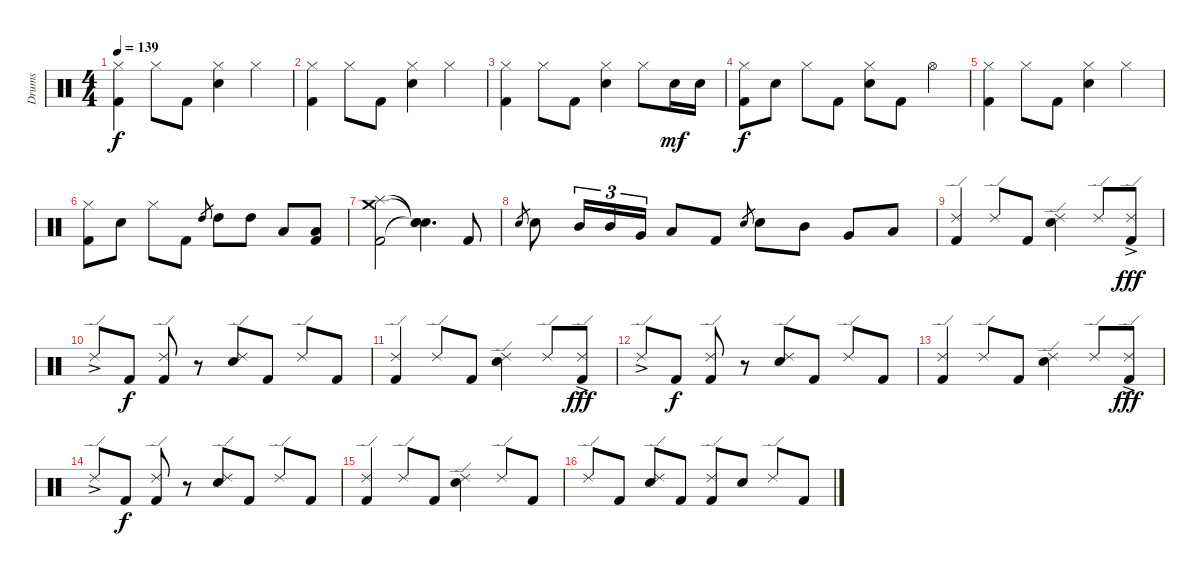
\track ("Drums" "Drums") {instrument percussion}
\staff {score}
\articulation defaults
\ts (4 4)
\tempo 139
\clef neutral
\ks c
("Hi-Hat (closed)" "Kick (hit) 2").4{dy f} "Hi-Hat (closed)".8 "Kick (hit) 2".8 ("Hi-Hat (closed)" "Electric Snare (hit)").4 "Hi-Hat (closed)".4 |
("Hi-Hat (closed)" "Kick (hit) 2").4 "Hi-Hat (closed)".8 "Kick (hit) 2".8 ("Hi-Hat (closed)" "Electric Snare (hit)").4 "Hi-Hat (closed)".4 |
("Hi-Hat (closed)" "Kick (hit) 2").4 "Hi-Hat (closed)".8 "Kick (hit) 2".8 ("Hi-Hat (closed)" "Electric Snare (hit)").4 "Hi-Hat (closed)".8 "Electric Snare (hit)".16{dy mf} "Electric Snare (hit)".16 |
("Hi-Hat (closed)" "Kick (hit) 2").8{dy f} "Electric Snare (hit)".8 "Hi-Hat (closed)".8 "Kick (hit) 2".8 ("Hi-Hat (closed)" "Electric Snare (hit)").8 "Kick (hit) 2".8 "Hi-Hat (open)".4 |
("Hi-Hat (closed)" "Kick (hit) 2").4 "Hi-Hat (closed)".8 "Kick (hit) 2".8 ("Hi-Hat (closed)" "Electric Snare (hit)").4 "Hi-Hat (closed)".4 |
("Hi-Hat (closed)" "Kick (hit) 2").8 "Electric Snare (hit)".8 "Hi-Hat (closed)".8 "Kick (hit) 2".8 "High Tom (hit)".8{gr} "High Tom (hit)".8 "High Tom (hit)".8 "Low Tom (hit)".8 ("Low Floor Tom (hit)" "Kick (hit) 2").8 |
("Crash medium (hit)" "Splash (hit)" "Kick (hit) 2").2 ("Snare (hit)"{t} "Snare (hit)"{t} "Snare (hit)"{t}).4{d} "Kick (hit) 2".8 |
"Electric Snare (hit)".8{gr} "Electric Snare (hit)".8 "Mid Tom (hit)".16{tu (3 2)} "Mid Tom (hit)".16{tu (3 2)} "Very Low Tom (hit)".16{tu (3 2)} "Low Floor Tom (hit)".8 "Kick (hit) 2".8 "Electric Snare (hit)".8{gr} "Electric Snare (hit)".8 "Mid Tom (hit)".8 "Very Low Tom (hit)".8 "Low Floor Tom (hit)".8 |
("Ride (edge) 2" "Kick (hit) 2").4 "Ride (edge) 2".8 "Kick (hit) 2".8 ("Ride (edge) 2" "Electric Snare (hit)").4 "Ride (edge) 2".8 ("Ride (edge) 2"{ac} "Kick (hit) 2").8{dy fff} |
"Ride (edge) 2"{ac}.8 "Kick (hit) 2".8{dy f} ("Ride (edge) 2" "Kick (hit) 2").8 r.8 ("Ride (edge) 2" "Electric Snare (hit)").8 "Kick (hit) 2".8 "Ride (edge) 2".8 "Kick (hit) 2".8 |
("Ride (edge) 2" "Kick (hit) 2").4 "Ride (edge) 2".8 "Kick (hit) 2".8 ("Ride (edge) 2" "Electric Snare (hit)").4 "Ride (edge) 2".8 ("Ride (edge) 2"{ac} "Kick (hit) 2").8{dy fff} |
"Ride (edge) 2"{ac}.8 "Kick (hit) 2".8{dy f} ("Ride (edge) 2" "Kick (hit) 2").8 r.8 ("Ride (edge) 2" "Electric Snare (hit)").8 "Kick (hit) 2".8 "Ride (edge) 2".8 "Kick (hit) 2".8 |
("Ride (edge) 2" "Kick (hit) 2").4 "Ride (edge) 2".8 "Kick (hit) 2".8 ("Ride (edge) 2" "Electric Snare (hit)").4 "Ride (edge) 2".8 ("Ride (edge) 2"{ac} "Kick (hit) 2").8{dy fff} |
"Ride (edge) 2"{ac}.8 "Kick (hit) 2".8{dy f} ("Ride (edge) 2" "Kick (hit) 2").8 r.8 ("Ride (edge) 2" "Electric Snare (hit)").8 "Kick (hit) 2".8 "Ride (edge) 2".8 "Kick (hit) 2".8 |
("Ride (edge) 2" "Kick (hit) 2").4 "Ride (edge) 2".8 "Kick (hit) 2".8 ("Ride (edge) 2" "Electric Snare (hit)").4 "Ride (edge) 2".8 "Kick (hit) 2".8 |
"Ride (edge) 2".8 "Kick (hit) 2".8 ("Ride (edge) 2" "Electric Snare (hit)").8 "Kick (hit) 2".8 ("Ride (edge) 2" "Kick (hit) 2").8 "Electric Snare (hit)".8 "Ride (edge) 2".8 "Kick (hit) 2".8
